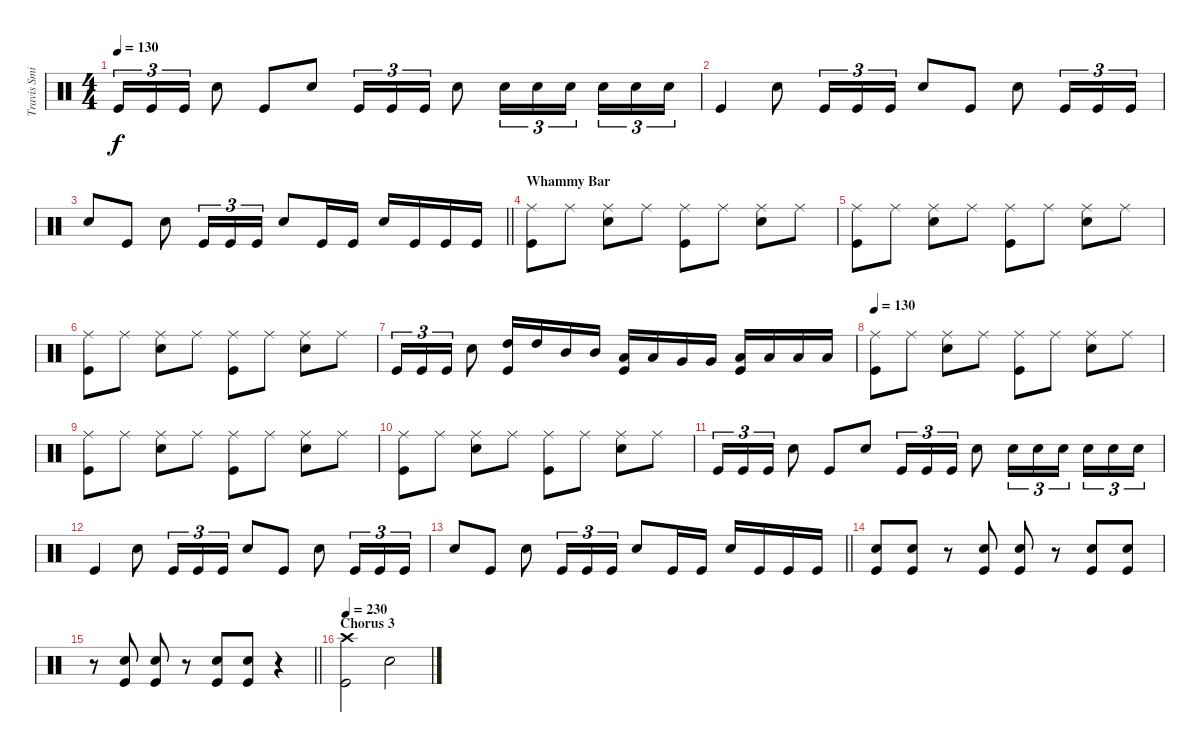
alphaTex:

\track ("Travis Smith" "Travis Smi") {instrument percussion}
\staff {score}
\articulation defaults
\ts (4 4)
\tempo 130
\clef neutral
\ks c "Kick (hit)".16{tu (3 2) dy f} "Kick (hit)".16{tu (3 2)} "Kick (hit)".16{tu (3 2)} "Snare (hit) 2".8 "Kick (hit)".8 "Snare (hit) 2".8 "Kick (hit)".16{tu (3 2)} "Kick (hit)".16{tu (3 2)} "Kick (hit)".16{tu (3 2)} "Snare (hit) 2".8 "Snare (hit) 2".16{tu (3 2)} "Snare (hit) 2".16{tu (3 2)} "Snare (hit) 2".16{tu (3 2) beam splitsecondary} "Snare (hit) 2".16{tu (3 2)} "Snare (hit) 2".16{tu (3 2)} "Snare (hit) 2".16{tu (3 2)}
|
"Kick (hit)".4 "Snare (hit) 2".8 "Kick (hit)".16{tu (3 2)} "Kick (hit)".16{tu (3 2)} "Kick (hit)".16{tu (3 2)} "Snare (hit) 2".8 "Kick (hit)".8 "Snare (hit) 2".8 "Kick (hit)".16{tu (3 2)} "Kick (hit)".16{tu (3 2)} "Kick (hit)".16{tu (3 2)} |
\barLineRight lightlight "Snare (hit) 2".8 "Kick (hit)".8 "Snare (hit) 2".8 "Kick (hit)".16{tu (3 2)} "Kick (hit)".16{tu (3 2)} "Kick (hit)".16{tu (3 2)} "Snare (hit) 2".8 "Kick (hit)".16 "Kick (hit)".16 "Snare (hit) 2".16 "Kick (hit)".16 "Kick (hit)".16 "Kick (hit)".16
|
\section ("" "Whammy Bar")
("Ride (middle)" "Kick (hit)").8 "Ride (middle)".8 ("Ride (middle)" "Snare (hit) 2").8 "Ride (middle)".8 ("Ride (middle)" "Kick (hit)").8 "Ride (middle)".8 ("Ride (middle)" "Snare (hit) 2").8 "Ride (middle)".8 |
("Ride (middle)" "Kick (hit)").8 "Ride (middle)".8 ("Ride (middle)" "Snare (hit) 2").8 "Ride (middle)".8 ("Ride (middle)" "Kick (hit)").8 "Ride (middle)".8 ("Ride (middle)" "Snare (hit) 2").8 "Ride (middle)".8 |
("Ride (middle)" "Kick (hit)").8 "Ride (middle)".8 ("Ride (middle)" "Snare (hit) 2").8 "Ride (middle)".8 ("Ride (middle)" "Kick (hit)").8 "Ride (middle)".8 ("Ride (middle)" "Snare (hit) 2").8 "Ride (middle)".8 |
"Kick (hit)".16{tu (3 2)} "Kick (hit)".16{tu (3 2)} "Kick (hit)".16{tu (3 2)} "Snare (hit) 2".8 ("High Tom (hit)" "Kick (hit)").16 "High Tom (hit)".16 "Mid Tom (hit)".16 "Mid Tom (hit)".16 ("Low Tom (hit)" "Kick (hit)").16 "Low Tom (hit)".16 "Very Low Tom (hit)".16 "Very Low Tom (hit)".16 ("Low Floor Tom (hit)" "Kick (hit)").16 "Low Floor Tom (hit)".16 "Low Floor Tom (hit)".16 "Low Floor Tom (hit)".16 |
\tempo 130
("Ride (middle)" "Kick (hit)").8 "Ride (middle)".8 ("Ride (middle)" "Snare (hit) 2").8 "Ride (middle)".8 ("Ride (middle)" "Kick (hit)").8 "Ride (middle)".8 ("Ride (middle)" "Snare (hit) 2").8 "Ride (middle)".8 |
("Ride (middle)" "Kick (hit)").8 "Ride (middle)".8 ("Ride (middle)" "Snare (hit) 2").8 "Ride (middle)".8 ("Ride (middle)" "Kick (hit)").8 "Ride (middle)".8 ("Ride (middle)" "Snare (hit) 2").8 "Ride (middle)".8 |
("Ride (middle)" "Kick (hit)").8 "Ride (middle)".8 ("Ride (middle)" "Snare (hit) 2").8 "Ride (middle)".8 ("Ride (middle)" "Kick (hit)").8 "Ride (middle)".8 ("Ride (middle)" "Snare (hit) 2").8 "Ride (middle)".8 |
"Kick (hit)".16{tu (3 2)} "Kick (hit)".16{tu (3 2)} "Kick (hit)".16{tu (3 2)} "Snare (hit) 2".8 "Kick (hit)".8 "Snare (hit) 2".8 "Kick (hit)".16{tu (3 2)} "Kick (hit)".16{tu (3 2)} "Kick (hit)".16{tu (3 2)} "Snare (hit) 2".8 "Snare (hit) 2".16{tu (3 2)} "Snare (hit) 2".16{tu (3 2)} "Snare (hit) 2".16{tu (3 2) beam splitsecondary} "Snare (hit) 2".16{tu (3 2)} "Snare (hit) 2".16{tu (3 2)} "Snare (hit) 2".16{tu (3 2)} |
"Kick (hit)".4 "Snare (hit) 2".8 "Kick (hit)".16{tu (3 2)} "Kick (hit)".16{tu (3 2)} "Kick (hit)".16{tu (3 2)} "Snare (hit) 2".8 "Kick (hit)".8 "Snare (hit) 2".8 "Kick (hit)".16{tu (3 2)} "Kick (hit)".16{tu (3 2)} "Kick (hit)".16{tu (3 2)} |
\barLineRight lightlight "Snare (hit) 2".8 "Kick (hit)".8 "Snare (hit) 2".8 "Kick (hit)".16{tu (3 2)} "Kick (hit)".16{tu (3 2)} "Kick (hit)".16{tu (3 2)} "Snare (hit) 2".8 "Kick (hit)".16 "Kick (hit)".16 "Snare (hit) 2".16 "Kick (hit)".16 "Kick (hit)".16 "Kick (hit)".16
|
("Snare (hit) 2" "Kick (hit)").8 ("Snare (hit) 2" "Kick (hit)").8 r.8 ("Snare (hit) 2" "Kick (hit)").8 ("Snare (hit) 2" "Kick (hit)").8 r.8 ("Snare (hit) 2" "Kick (hit)").8 ("Snare (hit) 2" "Kick (hit)").8 |
\barLineRight lightlight
r.8 ("Snare (hit) 2" "Kick (hit)").8 ("Snare (hit) 2" "Kick (hit)").8 r.8 ("Snare (hit) 2" "Kick (hit)").8 ("Snare (hit) 2" "Kick (hit)").8 r.4 |
\section ("" "Chorus 3")
\tempo 230
("Crash high (hit)" "Kick (hit)").2 "Snare (hit) 2".2
